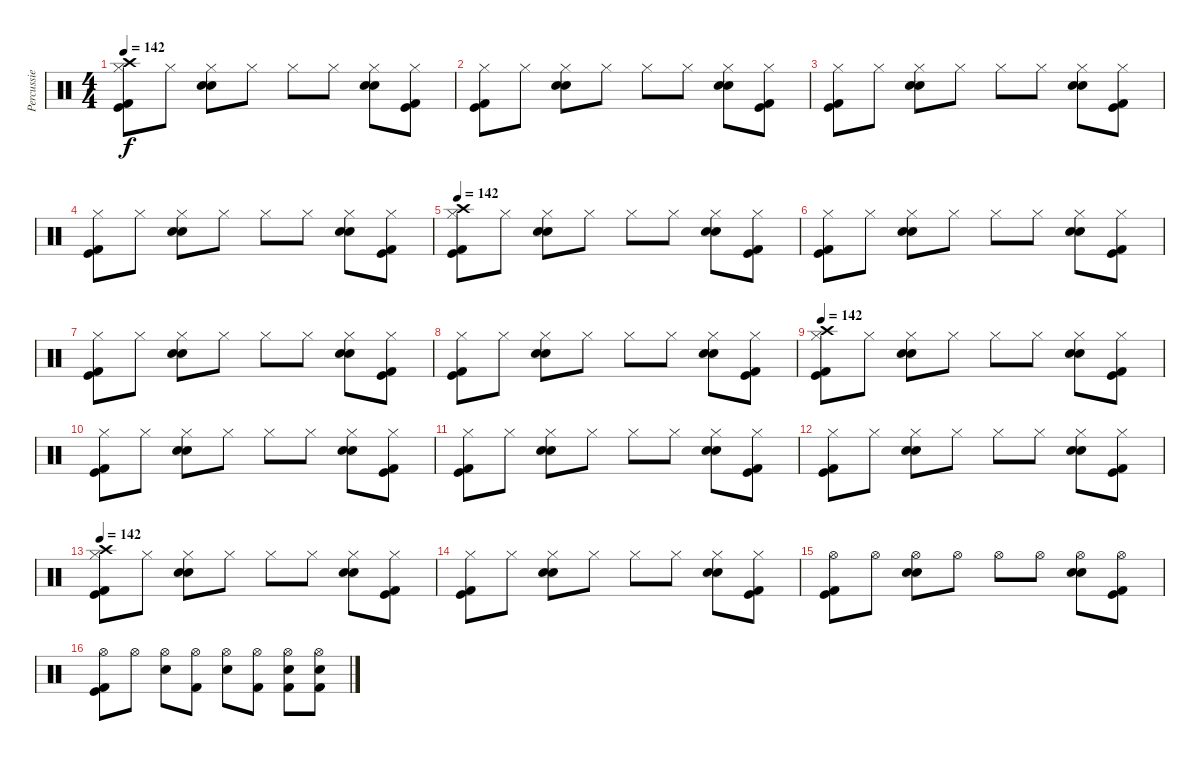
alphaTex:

\track ("Percussie" "Percussie") {instrument percussion}
\staff {score}
\articulation defaults
\ts (4 4)
\tempo 142
\clef neutral
\ks c
("Kick (hit)" "Kick (hit) 2" "Hi-Hat (closed)" "Crash high (hit)").8{dy f} "Hi-Hat (closed)".8 ("Snare (hit) 2" "Electric Snare (hit)" "Hi-Hat (closed)").8 "Hi-Hat (closed)".8 "Hi-Hat (closed)".8 "Hi-Hat (closed)".8 ("Snare (hit) 2" "Electric Snare (hit)" "Hi-Hat (closed)").8 ("Kick (hit)" "Kick (hit) 2" "Hi-Hat (closed)").8 |
("Kick (hit)" "Kick (hit) 2" "Hi-Hat (closed)").8 "Hi-Hat (closed)".8 ("Snare (hit) 2" "Electric Snare (hit)" "Hi-Hat (closed)").8 "Hi-Hat (closed)".8 "Hi-Hat (closed)".8 "Hi-Hat (closed)".8 ("Snare (hit) 2" "Electric Snare (hit)" "Hi-Hat (closed)").8 ("Kick (hit)" "Kick (hit) 2" "Hi-Hat (closed)").8 |
("Kick (hit)" "Kick (hit) 2" "Hi-Hat (closed)").8 "Hi-Hat (closed)".8 ("Snare (hit) 2" "Electric Snare (hit)" "Hi-Hat (closed)").8 "Hi-Hat (closed)".8 "Hi-Hat (closed)".8 "Hi-Hat (closed)".8 ("Snare (hit) 2" "Electric Snare (hit)" "Hi-Hat (closed)").8 ("Kick (hit)" "Kick (hit) 2" "Hi-Hat (closed)").8 |
("Kick (hit)" "Kick (hit) 2" "Hi-Hat (closed)").8 "Hi-Hat (closed)".8 ("Snare (hit) 2" "Electric Snare (hit)" "Hi-Hat (closed)").8 "Hi-Hat (closed)".8 "Hi-Hat (closed)".8 "Hi-Hat (closed)".8 ("Snare (hit) 2" "Electric Snare (hit)" "Hi-Hat (closed)").8 ("Kick (hit)" "Kick (hit) 2" "Hi-Hat (closed)").8 |
\tempo 142
("Kick (hit)" "Kick (hit) 2" "Hi-Hat (closed)" "Crash high (hit)").8 "Hi-Hat (closed)".8 ("Snare (hit) 2" "Electric Snare (hit)" "Hi-Hat (closed)").8 "Hi-Hat (closed)".8 "Hi-Hat (closed)".8 "Hi-Hat (closed)".8 ("Snare (hit) 2" "Electric Snare (hit)" "Hi-Hat (closed)").8 ("Kick (hit)" "Kick (hit) 2" "Hi-Hat (closed)").8 |
("Kick (hit)" "Kick (hit) 2" "Hi-Hat (closed)").8 "Hi-Hat (closed)".8 ("Snare (hit) 2" "Electric Snare (hit)" "Hi-Hat (closed)").8 "Hi-Hat (closed)".8 "Hi-Hat (closed)".8 "Hi-Hat (closed)".8 ("Snare (hit) 2" "Electric Snare (hit)" "Hi-Hat (closed)").8 ("Kick (hit)" "Kick (hit) 2" "Hi-Hat (closed)").8 |
("Kick (hit)" "Kick (hit) 2" "Hi-Hat (closed)").8 "Hi-Hat (closed)".8 ("Snare (hit) 2" "Electric Snare (hit)" "Hi-Hat (closed)").8 "Hi-Hat (closed)".8 "Hi-Hat (closed)".8 "Hi-Hat (closed)".8 ("Snare (hit) 2" "Electric Snare (hit)" "Hi-Hat (closed)").8 ("Kick (hit)" "Kick (hit) 2" "Hi-Hat (closed)").8 |
("Kick (hit)" "Kick (hit) 2" "Hi-Hat (closed)").8 "Hi-Hat (closed)".8 ("Snare (hit) 2" "Electric Snare (hit)" "Hi-Hat (closed)").8 "Hi-Hat (closed)".8 "Hi-Hat (closed)".8 "Hi-Hat (closed)".8 ("Snare (hit) 2" "Electric Snare (hit)" "Hi-Hat (closed)").8 ("Kick (hit)" "Kick (hit) 2" "Hi-Hat (closed)").8 |
\tempo 142
("Kick (hit)" "Kick (hit) 2" "Hi-Hat (closed)" "Crash high (hit)").8 "Hi-Hat (closed)".8 ("Snare (hit) 2" "Electric Snare (hit)" "Hi-Hat (closed)").8 "Hi-Hat (closed)".8 "Hi-Hat (closed)".8 "Hi-Hat (closed)".8 ("Snare (hit) 2" "Electric Snare (hit)" "Hi-Hat (closed)").8 ("Kick (hit)" "Kick (hit) 2" "Hi-Hat (closed)").8 |
("Kick (hit)" "Kick (hit) 2" "Hi-Hat (closed)").8 "Hi-Hat (closed)".8 ("Snare (hit) 2" "Electric Snare (hit)" "Hi-Hat (closed)").8 "Hi-Hat (closed)".8 "Hi-Hat (closed)".8 "Hi-Hat (closed)".8 ("Snare (hit) 2" "Electric Snare (hit)" "Hi-Hat (closed)").8 ("Kick (hit)" "Kick (hit) 2" "Hi-Hat (closed)").8 |
("Kick (hit)" "Kick (hit) 2" "Hi-Hat (closed)").8 "Hi-Hat (closed)".8 ("Snare (hit) 2" "Electric Snare (hit)" "Hi-Hat (closed)").8 "Hi-Hat (closed)".8 "Hi-Hat (closed)".8 "Hi-Hat (closed)".8 ("Snare (hit) 2" "Electric Snare (hit)" "Hi-Hat (closed)").8 ("Kick (hit)" "Kick (hit) 2" "Hi-Hat (closed)").8 |
("Kick (hit)" "Kick (hit) 2" "Hi-Hat (closed)").8 "Hi-Hat (closed)".8 ("Snare (hit) 2" "Electric Snare (hit)" "Hi-Hat (closed)").8 "Hi-Hat (closed)".8 "Hi-Hat (closed)".8 "Hi-Hat (closed)".8 ("Snare (hit) 2" "Electric Snare (hit)" "Hi-Hat (closed)").8 ("Kick (hit)" "Kick (hit) 2" "Hi-Hat (closed)").8 |
\tempo 142
("Kick (hit)" "Kick (hit) 2" "Hi-Hat (closed)" "Crash high (hit)").8 "Hi-Hat (closed)".8 ("Snare (hit) 2" "Electric Snare (hit)" "Hi-Hat (closed)").8 "Hi-Hat (closed)".8 "Hi-Hat (closed)".8 "Hi-Hat (closed)".8 ("Snare (hit) 2" "Electric Snare (hit)" "Hi-Hat (closed)").8 ("Kick (hit)" "Kick (hit) 2" "Hi-Hat (closed)").8 |
("Kick (hit)" "Kick (hit) 2" "Hi-Hat (closed)").8 "Hi-Hat (closed)".8 ("Snare (hit) 2" "Electric Snare (hit)" "Hi-Hat (closed)").8 "Hi-Hat (closed)".8 "Hi-Hat (closed)".8 "Hi-Hat (closed)".8 ("Snare (hit) 2" "Electric Snare (hit)" "Hi-Hat (closed)").8 ("Kick (hit)" "Kick (hit) 2" "Hi-Hat (closed)").8 |
("Kick (hit)" "Kick (hit) 2" "Hi-Hat (open)").8 "Hi-Hat (open)".8 ("Snare (hit) 2" "Electric Snare (hit)" "Hi-Hat (open)").8 "Hi-Hat (open)".8 "Hi-Hat (open)".8 "Hi-Hat (open)".8 ("Snare (hit) 2" "Electric Snare (hit)" "Hi-Hat (open)").8 ("Kick (hit)" "Kick (hit) 2" "Hi-Hat (open)").8 |
("Kick (hit)" "Kick (hit) 2" "Hi-Hat (open)").8 "Hi-Hat (open)".8 ("Electric Snare (hit)" "Hi-Hat (open)").8 ("Kick (hit) 2" "Hi-Hat (open)").8 ("Electric Snare (hit)" "Hi-Hat (open)").8 ("Kick (hit) 2" "Hi-Hat (open)").8 ("Kick (hit) 2" "Electric Snare (hit)" "Hi-Hat (open)").8 ("Kick (hit) 2" "Electric Snare (hit)" "Hi-Hat (open)").8
